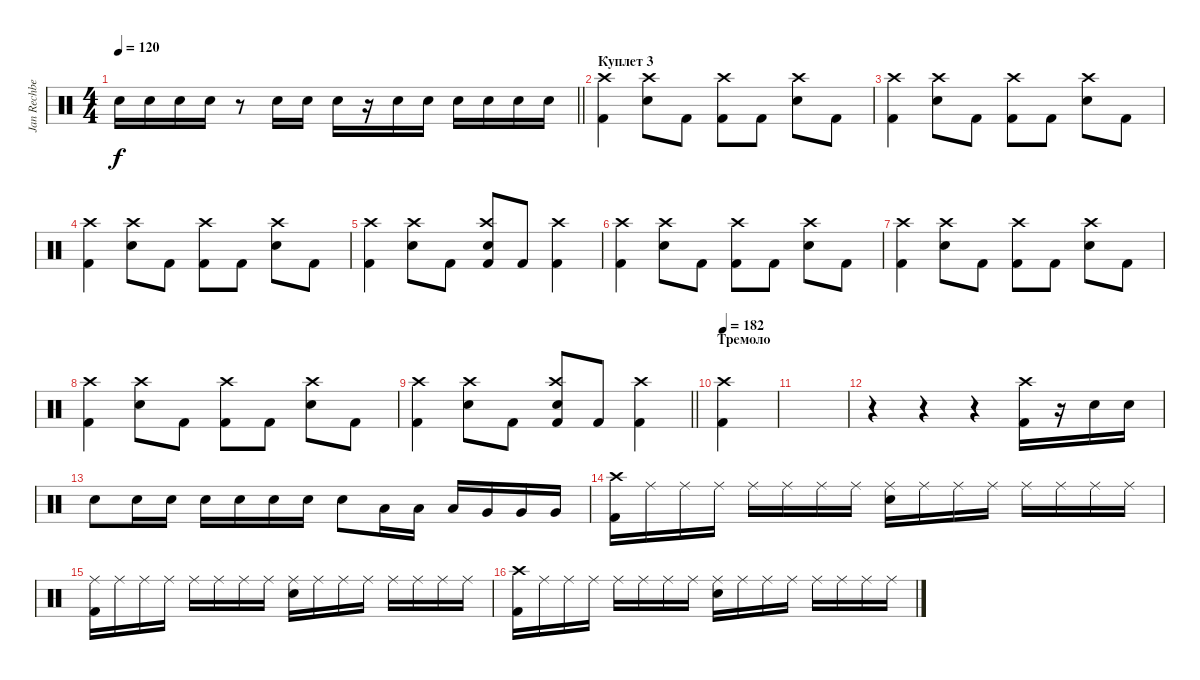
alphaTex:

\track ("Jan Rechberger" "Jan Rechbe") {instrument percussion}
\staff {score}
\articulation defaults
\ts (4 4)
\tempo 120
\clef neutral
\barLineRight lightlight
\ks c "Electric Snare (hit)".16{dy f} "Electric Snare (hit)".16 "Electric Snare (hit)".16 "Electric Snare (hit)".16
r.8 "Electric Snare (hit)".16 "Electric Snare (hit)".16 "Electric Snare (hit)".16 r.16 "Electric Snare (hit)".16 "Electric Snare (hit)".16 "Electric Snare (hit)".16 "Electric Snare (hit)".16 "Electric Snare (hit)".16 "Electric Snare (hit)".16 |
\section ("" "Куплет 3")
("Crash high (hit)" "Kick (hit) 2").4 ("Crash high (hit)" "Electric Snare (hit)").8 "Kick (hit) 2".8 ("Crash high (hit)" "Kick (hit) 2").8 "Kick (hit) 2".8 ("Crash high (hit)" "Electric Snare (hit)").8 "Kick (hit) 2".8 |
("Crash high (hit)" "Kick (hit) 2").4 ("Crash high (hit)" "Electric Snare (hit)").8 "Kick (hit) 2".8 ("Crash high (hit)" "Kick (hit) 2").8 "Kick (hit) 2".8 ("Crash high (hit)" "Electric Snare (hit)").8 "Kick (hit) 2".8 |
("Crash high (hit)" "Kick (hit) 2").4 ("Crash high (hit)" "Electric Snare (hit)").8 "Kick (hit) 2".8 ("Crash high (hit)" "Kick (hit) 2").8 "Kick (hit) 2".8 ("Crash high (hit)" "Electric Snare (hit)").8 "Kick (hit) 2".8 |
("Crash high (hit)" "Kick (hit) 2").4 ("Crash high (hit)" "Electric Snare (hit)").8 "Kick (hit) 2".8 ("Crash high (hit)" "Electric Snare (hit)" "Kick (hit) 2").8 "Kick (hit) 2".8 ("Crash high (hit)" "Kick (hit) 2").4 |
("Crash high (hit)" "Kick (hit) 2").4 ("Crash high (hit)" "Electric Snare (hit)").8 "Kick (hit) 2".8 ("Crash high (hit)" "Kick (hit) 2").8 "Kick (hit) 2".8 ("Crash high (hit)" "Electric Snare (hit)").8 "Kick (hit) 2".8 |
("Crash high (hit)" "Kick (hit) 2").4 ("Crash high (hit)" "Electric Snare (hit)").8 "Kick (hit) 2".8 ("Crash high (hit)" "Kick (hit) 2").8 "Kick (hit) 2".8 ("Crash high (hit)" "Electric Snare (hit)").8 "Kick (hit) 2".8 |
("Crash high (hit)" "Kick (hit) 2").4 ("Crash high (hit)" "Electric Snare (hit)").8 "Kick (hit) 2".8 ("Crash high (hit)" "Kick (hit) 2").8 "Kick (hit) 2".8 ("Crash high (hit)" "Electric Snare (hit)").8 "Kick (hit) 2".8 |
\barLineRight lightlight
("Crash high (hit)" "Kick (hit) 2").4 ("Crash high (hit)" "Electric Snare (hit)").8 "Kick (hit) 2".8 ("Crash high (hit)" "Electric Snare (hit)" "Kick (hit) 2").8 "Kick (hit) 2".8 ("Crash high (hit)" "Kick (hit) 2").4 |
\section ("" "Тремоло")
\tempo 182
("Kick (hit) 2" "Crash high (hit)").4 |
|
r.4 r.4 r.4 ("Crash high (hit)" "Kick (hit) 2").16 r.16 "Electric Snare (hit)".16 "Electric Snare (hit)".16 |
"Electric Snare (hit)".8 "Electric Snare (hit)".16 "Electric Snare (hit)".16 "Electric Snare (hit)".16 "Electric Snare (hit)".16 "Electric Snare (hit)".16 "Electric Snare (hit)".16 "Electric Snare (hit)".8 "Low Floor Tom (hit)".16 "Low Floor Tom (hit)".16 "Low Floor Tom (hit)".16 "Very Low Tom (hit)".16 "Very Low Tom (hit)".16 "Very Low Tom (hit)".16 |
("Crash high (hit)" "Kick (hit) 2").16 "Ride (middle)".16 "Ride (middle)".16 "Ride (middle)".16 "Ride (middle)".16 "Ride (middle)".16 "Ride (middle)".16 "Ride (middle)".16 ("Electric Snare (hit)" "Ride (middle)").16 "Ride (middle)".16 "Ride (middle)".16 "Ride (middle)".16 "Ride (middle)".16 "Ride (middle)".16 "Ride (middle)".16 "Ride (middle)".16 |
("Ride (middle)" "Kick (hit) 2").16 "Ride (middle)".16 "Ride (middle)".16 "Ride (middle)".16 "Ride (middle)".16 "Ride (middle)".16 "Ride (middle)".16 "Ride (middle)".16 ("Electric Snare (hit)" "Ride (middle)").16 "Ride (middle)".16 "Ride (middle)".16 "Ride (middle)".16 "Ride (middle)".16 "Ride (middle)".16 "Ride (middle)".16 "Ride (middle)".16 |
("Crash high (hit)" "Kick (hit) 2").16 "Ride (middle)".16 "Ride (middle)".16 "Ride (middle)".16 "Ride (middle)".16 "Ride (middle)".16 "Ride (middle)".16 "Ride (middle)".16 ("Electric Snare (hit)" "Ride (middle)").16 "Ride (middle)".16 "Ride (middle)".16 "Ride (middle)".16 "Ride (middle)".16 "Ride (middle)".16 "Ride (middle)".16 "Ride (middle)".16
